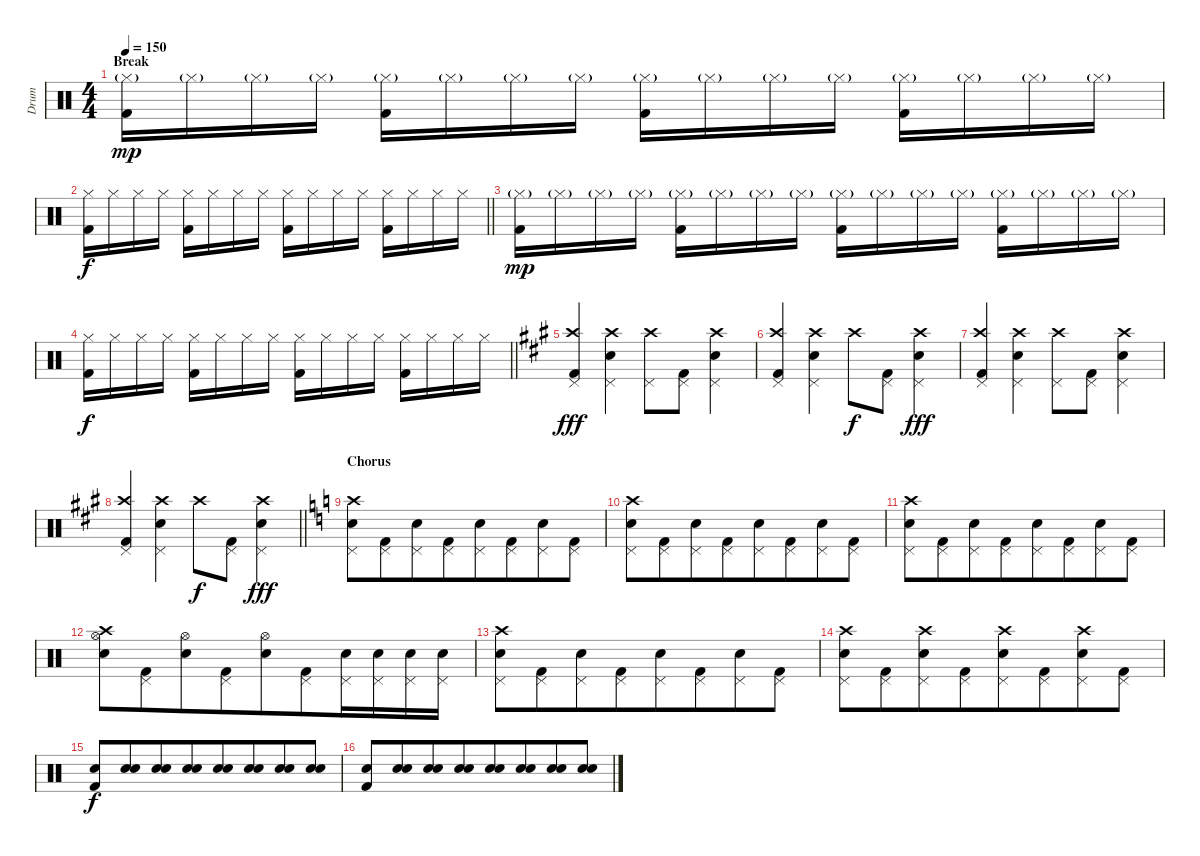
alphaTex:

\track ("Drum" "Drum") {instrument percussion}
\staff {score}
\articulation defaults
\ts (4 4)
\section ("" "Break")
\tempo 150
\clef neutral
\ks c
("Hi-Hat (closed)"{g} "Kick (hit) 2").16{dy mp} "Hi-Hat (closed)"{g}.16 "Hi-Hat (closed)"{g}.16 "Hi-Hat (closed)"{g}.16 ("Hi-Hat (closed)"{g} "Kick (hit) 2").16 "Hi-Hat (closed)"{g}.16 "Hi-Hat (closed)"{g}.16 "Hi-Hat (closed)"{g}.16 ("Hi-Hat (closed)"{g} "Kick (hit) 2").16 "Hi-Hat (closed)"{g}.16 "Hi-Hat (closed)"{g}.16 "Hi-Hat (closed)"{g}.16 ("Hi-Hat (closed)"{g} "Kick (hit) 2").16 "Hi-Hat (closed)"{g}.16 "Hi-Hat (closed)"{g}.16 "Hi-Hat (closed)"{g}.16 |
\barLineRight lightlight
("Hi-Hat (closed)" "Kick (hit) 2").16{dy f} "Hi-Hat (closed)".16 "Hi-Hat (closed)".16 "Hi-Hat (closed)".16 ("Hi-Hat (closed)" "Kick (hit) 2").16 "Hi-Hat (closed)".16 "Hi-Hat (closed)".16 "Hi-Hat (closed)".16 ("Hi-Hat (closed)" "Kick (hit) 2").16 "Hi-Hat (closed)".16 "Hi-Hat (closed)".16 "Hi-Hat (closed)".16 ("Hi-Hat (closed)" "Kick (hit) 2").16 "Hi-Hat (closed)".16 "Hi-Hat (closed)".16 "Hi-Hat (closed)".16 |
("Hi-Hat (closed)"{g} "Kick (hit) 2").16{dy mp} "Hi-Hat (closed)"{g}.16 "Hi-Hat (closed)"{g}.16 "Hi-Hat (closed)"{g}.16 ("Hi-Hat (closed)"{g} "Kick (hit) 2").16 "Hi-Hat (closed)"{g}.16 "Hi-Hat (closed)"{g}.16 "Hi-Hat (closed)"{g}.16 ("Hi-Hat (closed)"{g} "Kick (hit) 2").16 "Hi-Hat (closed)"{g}.16 "Hi-Hat (closed)"{g}.16 "Hi-Hat (closed)"{g}.16 ("Hi-Hat (closed)"{g} "Kick (hit) 2").16 "Hi-Hat (closed)"{g}.16 "Hi-Hat (closed)"{g}.16 "Hi-Hat (closed)"{g}.16 |
\barLineRight lightlight
("Hi-Hat (closed)" "Kick (hit) 2").16{dy f} "Hi-Hat (closed)".16 "Hi-Hat (closed)".16 "Hi-Hat (closed)".16 ("Hi-Hat (closed)" "Kick (hit) 2").16 "Hi-Hat (closed)".16 "Hi-Hat (closed)".16 "Hi-Hat (closed)".16 ("Hi-Hat (closed)" "Kick (hit) 2").16 "Hi-Hat (closed)".16 "Hi-Hat (closed)".16 "Hi-Hat (closed)".16 ("Hi-Hat (closed)" "Kick (hit) 2").16 "Hi-Hat (closed)".16 "Hi-Hat (closed)".16 "Hi-Hat (closed)".16 |
\ks a
("Crash high (hit)" "Pedal Hi-Hat (hit)" "Kick (hit) 2").4{dy fff} ("Crash high (hit)" "Pedal Hi-Hat (hit)" "Snare (hit) 2").4 ("Crash high (hit)" "Pedal Hi-Hat (hit)").8 ("Pedal Hi-Hat (hit)" "Kick (hit) 2").8 ("Crash high (hit)" "Pedal Hi-Hat (hit)" "Snare (hit) 2").4 |
("Crash high (hit)" "Pedal Hi-Hat (hit)" "Kick (hit) 2").4 ("Crash high (hit)" "Pedal Hi-Hat (hit)" "Snare (hit) 2").4 "Crash high (hit)".8{dy f} ("Pedal Hi-Hat (hit)" "Kick (hit) 2").8 ("Crash high (hit)" "Pedal Hi-Hat (hit)" "Snare (hit) 2").4{dy fff} |
("Crash high (hit)" "Pedal Hi-Hat (hit)" "Kick (hit) 2").4 ("Crash high (hit)" "Pedal Hi-Hat (hit)" "Snare (hit) 2").4 ("Crash high (hit)" "Pedal Hi-Hat (hit)").8 ("Pedal Hi-Hat (hit)" "Kick (hit) 2").8 ("Crash high (hit)" "Pedal Hi-Hat (hit)" "Snare (hit) 2").4 |
\barLineRight lightlight
("Crash high (hit)" "Pedal Hi-Hat (hit)" "Kick (hit) 2").4 ("Crash high (hit)" "Pedal Hi-Hat (hit)" "Snare (hit) 2").4 "Crash high (hit)".8{dy f} ("Pedal Hi-Hat (hit)" "Kick (hit) 2").8 ("Crash high (hit)" "Pedal Hi-Hat (hit)" "Snare (hit) 2").4{dy fff} |
\section ("" "Chorus")
\ks c
("Crash high (hit)" "Pedal Hi-Hat (hit)" "Snare (hit) 2").8{beam merge} ("Pedal Hi-Hat (hit)" "Kick (hit) 2").8{beam merge} ("Pedal Hi-Hat (hit)" "Snare (hit) 2").8{beam merge} ("Pedal Hi-Hat (hit)" "Kick (hit) 2").8{beam merge} ("Pedal Hi-Hat (hit)" "Snare (hit) 2").8{beam merge} ("Pedal Hi-Hat (hit)" "Kick (hit) 2").8{beam merge} ("Pedal Hi-Hat (hit)" "Snare (hit) 2").8{beam merge} ("Pedal Hi-Hat (hit)" "Kick (hit) 2").8 |
("Crash high (hit)" "Pedal Hi-Hat (hit)" "Snare (hit) 2").8{beam merge} ("Pedal Hi-Hat (hit)" "Kick (hit) 2").8{beam merge} ("Pedal Hi-Hat (hit)" "Snare (hit) 2").8{beam merge} ("Pedal Hi-Hat (hit)" "Kick (hit) 2").8{beam merge} ("Pedal Hi-Hat (hit)" "Snare (hit) 2").8{beam merge} ("Pedal Hi-Hat (hit)" "Kick (hit) 2").8{beam merge} ("Pedal Hi-Hat (hit)" "Snare (hit) 2").8{beam merge} ("Pedal Hi-Hat (hit)" "Kick (hit) 2").8 |
("Crash high (hit)" "Pedal Hi-Hat (hit)" "Snare (hit) 2").8{beam merge} ("Pedal Hi-Hat (hit)" "Kick (hit) 2").8{beam merge} ("Pedal Hi-Hat (hit)" "Snare (hit) 2").8{beam merge} ("Pedal Hi-Hat (hit)" "Kick (hit) 2").8{beam merge} ("Pedal Hi-Hat (hit)" "Snare (hit) 2").8{beam merge} ("Pedal Hi-Hat (hit)" "Kick (hit) 2").8{beam merge} ("Pedal Hi-Hat (hit)" "Snare (hit) 2").8{beam merge} ("Pedal Hi-Hat (hit)" "Kick (hit) 2").8 |
("Crash high (hit)" "Hi-Hat (open)" "Snare (hit) 2").8{beam merge} ("Pedal Hi-Hat (hit)" "Kick (hit) 2").8{beam merge} ("Hi-Hat (open)" "Snare (hit) 2").8{beam merge} ("Pedal Hi-Hat (hit)" "Kick (hit) 2").8{beam merge} ("Hi-Hat (open)" "Snare (hit) 2").8{beam merge} ("Pedal Hi-Hat (hit)" "Kick (hit) 2").8{beam merge} ("Pedal Hi-Hat (hit)" "Snare (hit) 2").16{beam merge} ("Pedal Hi-Hat (hit)" "Snare (hit) 2").16{beam merge} ("Pedal Hi-Hat (hit)" "Snare (hit) 2").16{beam merge} ("Pedal Hi-Hat (hit)" "Snare (hit) 2").16 |
("Crash high (hit)" "Pedal Hi-Hat (hit)" "Snare (hit) 2").8{beam merge} ("Pedal Hi-Hat (hit)" "Kick (hit) 2").8{beam merge} ("Pedal Hi-Hat (hit)" "Snare (hit) 2").8{beam merge} ("Pedal Hi-Hat (hit)" "Kick (hit) 2").8{beam merge} ("Pedal Hi-Hat (hit)" "Snare (hit) 2").8{beam merge} ("Pedal Hi-Hat (hit)" "Kick (hit) 2").8{beam merge} ("Pedal Hi-Hat (hit)" "Snare (hit) 2").8{beam merge} ("Pedal Hi-Hat (hit)" "Kick (hit) 2").8 |
("Crash high (hit)" "Pedal Hi-Hat (hit)" "Snare (hit) 2").8{beam merge} ("Pedal Hi-Hat (hit)" "Kick (hit) 2").8{beam merge} ("Crash high (hit)" "Pedal Hi-Hat (hit)" "Snare (hit) 2").8{beam merge} ("Pedal Hi-Hat (hit)" "Kick (hit) 2").8{beam merge} ("Crash high (hit)" "Pedal Hi-Hat (hit)" "Snare (hit) 2").8{beam merge} ("Pedal Hi-Hat (hit)" "Kick (hit) 2").8{beam merge} ("Crash high (hit)" "Pedal Hi-Hat (hit)" "Snare (hit) 2").8{beam merge} ("Pedal Hi-Hat (hit)" "Kick (hit) 2").8 |
("Kick (hit) 2" "Snare (hit) 2").8{dy f} ("Snare (hit) 2" "Snare (hit) 2").8{beam merge} ("Snare (hit) 2" "Snare (hit) 2").8 ("Snare (hit) 2" "Snare (hit) 2").8{beam merge} ("Snare (hit) 2" "Snare (hit) 2").8 ("Snare (hit) 2" "Snare (hit) 2").8{beam merge} ("Snare (hit) 2" "Snare (hit) 2").8 ("Snare (hit) 2" "Snare (hit) 2").8 |
("Kick (hit) 2" "Snare (hit) 2").8 ("Snare (hit) 2" "Snare (hit) 2").8{beam merge} ("Snare (hit) 2" "Snare (hit) 2").8 ("Snare (hit) 2" "Snare (hit) 2").8{beam merge} ("Snare (hit) 2" "Snare (hit) 2").8 ("Snare (hit) 2" "Snare (hit) 2").8{beam merge} ("Snare (hit) 2" "Snare (hit) 2").8 ("Snare (hit) 2" "Snare (hit) 2").8
